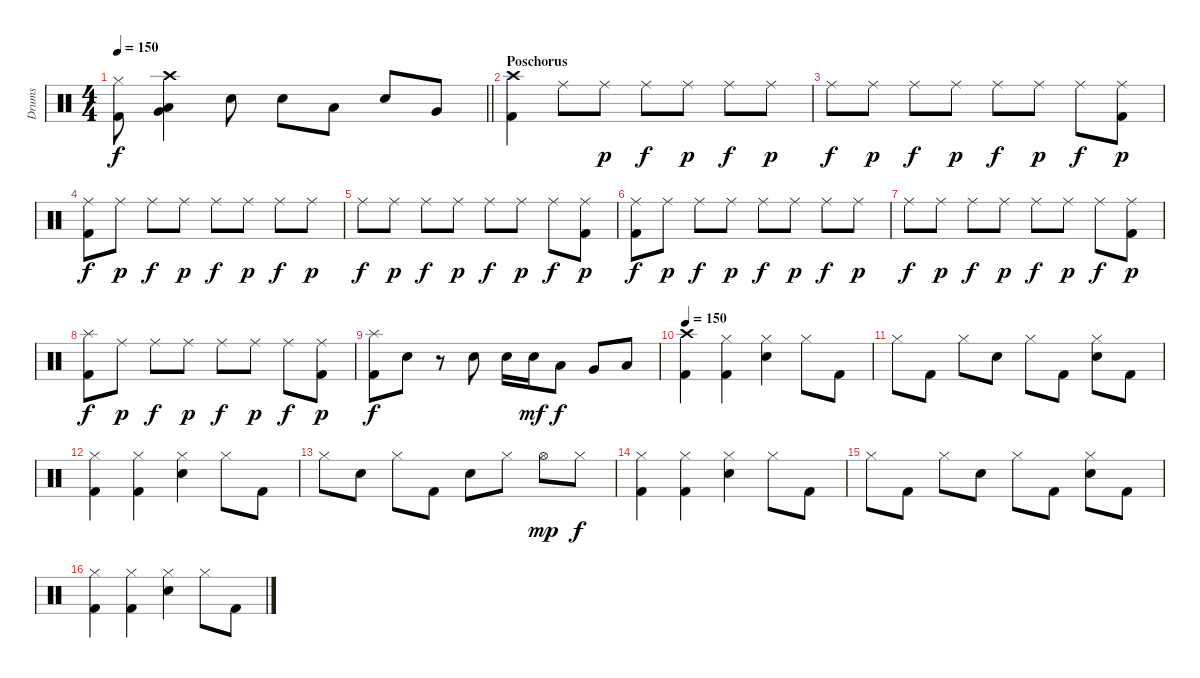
\track ("Drums" "Drums") {instrument percussion}
\staff {score}
\articulation defaults
\ts (4 4)
\tempo 150
\clef neutral
\barLineRight lightlight
\ks c
("Kick (hit) 2" "Hi-Hat (closed)").8{dy f} ("Crash high (hit)" "Very Low Tom (hit)" "Low Tom (hit)").4 "Electric Snare (hit)".8 "Electric Snare (hit)".8 "Low Tom (hit)".8 "Electric Snare (hit)".8 "Very Low Tom (hit)".8 |
\section ("" "Poschorus")
("Kick (hit) 2" "Crash high (hit)").4 "Ride (middle)".8 "Ride (middle)".8{dy p} "Ride (middle)".8{dy f} "Ride (middle)".8{dy p} "Ride (middle)".8{dy f} "Ride (middle)".8{dy p} |
"Ride (middle)".8{dy f} "Ride (middle)".8{dy p} "Ride (middle)".8{dy f} "Ride (middle)".8{dy p} "Ride (middle)".8{dy f} "Ride (middle)".8{dy p} "Ride (middle)".8{dy f} ("Kick (hit) 2" "Ride (middle)").8{dy p} |
("Kick (hit) 2" "Ride (middle)").8{dy f} "Ride (middle)".8{dy p} "Ride (middle)".8{dy f} "Ride (middle)".8{dy p} "Ride (middle)".8{dy f} "Ride (middle)".8{dy p} "Ride (middle)".8{dy f} "Ride (middle)".8{dy p} |
"Ride (middle)".8{dy f} "Ride (middle)".8{dy p} "Ride (middle)".8{dy f} "Ride (middle)".8{dy p} "Ride (middle)".8{dy f} "Ride (middle)".8{dy p} "Ride (middle)".8{dy f} ("Kick (hit) 2" "Ride (middle)").8{dy p} |
("Kick (hit) 2" "Ride (middle)").8{dy f} "Ride (middle)".8{dy p} "Ride (middle)".8{dy f} "Ride (middle)".8{dy p} "Ride (middle)".8{dy f} "Ride (middle)".8{dy p} "Ride (middle)".8{dy f} "Ride (middle)".8{dy p} |
"Ride (middle)".8{dy f} "Ride (middle)".8{dy p} "Ride (middle)".8{dy f} "Ride (middle)".8{dy p} "Ride (middle)".8{dy f} "Ride (middle)".8{dy p} "Ride (middle)".8{dy f} ("Kick (hit) 2" "Ride (middle)").8{dy p} |
("Kick (hit) 2" "Splash (hit)").8{dy f} "Ride (middle)".8{dy p} "Ride (middle)".8{dy f} "Ride (middle)".8{dy p} "Ride (middle)".8{dy f} "Ride (middle)".8{dy p} "Ride (middle)".8{dy f} ("Kick (hit) 2" "Ride (middle)").8{dy p} |
("Kick (hit) 2" "Splash (hit)").8{dy f} "Electric Snare (hit)".8 r.8 "Electric Snare (hit)".8 "Electric Snare (hit)".16 "Electric Snare (hit)".16{dy mf} "Low Tom (hit)".8{dy f} "Very Low Tom (hit)".8 "Low Floor Tom (hit)".8 |
\tempo 150
("Kick (hit) 2" "Crash high (hit)").4 ("Kick (hit) 2" "Hi-Hat (closed)").4 ("Hi-Hat (closed)" "Electric Snare (hit)").4 "Hi-Hat (closed)".8 "Kick (hit) 2".8 |
"Hi-Hat (closed)".8 "Kick (hit) 2".8 "Hi-Hat (closed)".8 "Electric Snare (hit)".8 "Hi-Hat (closed)".8 "Kick (hit) 2".8 ("Hi-Hat (closed)" "Electric Snare (hit)").8 "Kick (hit) 2".8 |
("Kick (hit) 2" "Hi-Hat (closed)").4 ("Kick (hit) 2" "Hi-Hat (closed)").4 ("Hi-Hat (closed)" "Electric Snare (hit)").4 "Hi-Hat (closed)".8 "Kick (hit) 2".8 |
"Hi-Hat (closed)".8 "Electric Snare (hit)".8 "Hi-Hat (closed)".8 "Kick (hit) 2".8 "Electric Snare (hit)".8 "Hi-Hat (closed)".8 "Hi-Hat (open)".8{dy mp} "Hi-Hat (closed)".8{dy f} |
("Kick (hit) 2" "Hi-Hat (closed)").4 ("Kick (hit) 2" "Hi-Hat (closed)").4 ("Hi-Hat (closed)" "Electric Snare (hit)").4 "Hi-Hat (closed)".8 "Kick (hit) 2".8 |
"Hi-Hat (closed)".8 "Kick (hit) 2".8 "Hi-Hat (closed)".8 "Electric Snare (hit)".8 "Hi-Hat (closed)".8 "Kick (hit) 2".8 ("Hi-Hat (closed)" "Electric Snare (hit)").8 "Kick (hit) 2".8 |
("Kick (hit) 2" "Hi-Hat (closed)").4 ("Kick (hit) 2" "Hi-Hat (closed)").4 ("Hi-Hat (closed)" "Electric Snare (hit)").4 "Hi-Hat (closed)".8 "Kick (hit) 2".8
